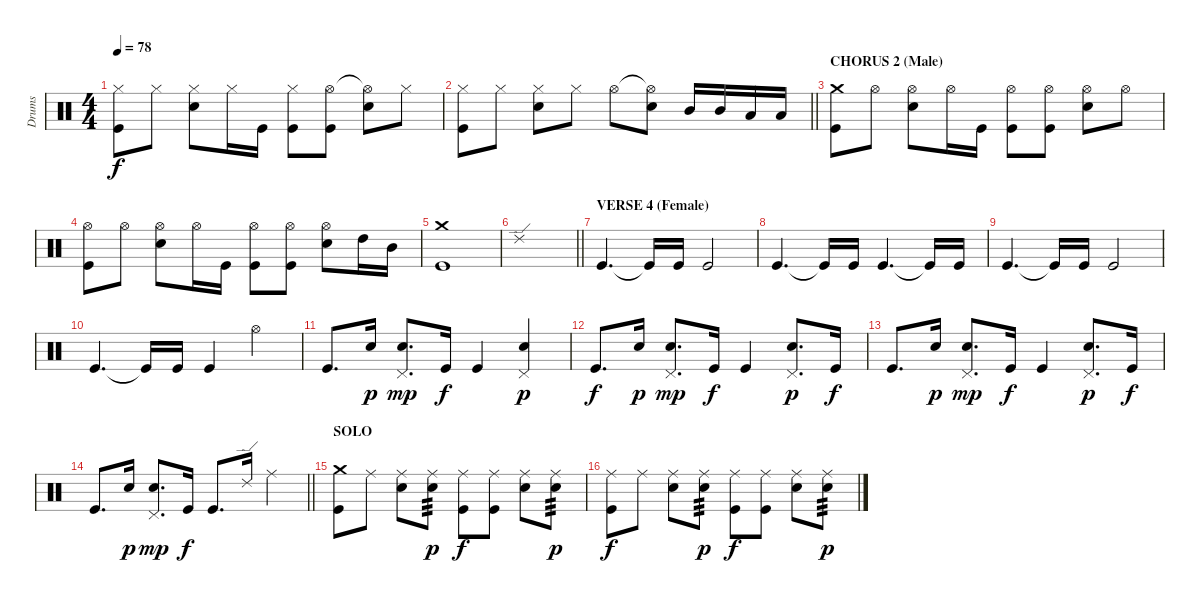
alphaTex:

\track ("Drums" "Drums") {instrument percussion}
\staff {score}
\articulation defaults
\ts (4 4)
\tempo 78
\clef neutral
\ks c
("Hi-Hat (closed)" "Kick (hit)").8{dy f} "Hi-Hat (closed)".8 ("Hi-Hat (closed)" "Snare (hit) 2").8 "Hi-Hat (closed)".16 "Kick (hit)".16 ("Hi-Hat (closed)" "Kick (hit)").8 ("Hi-Hat (open)" "Kick (hit)").8 ("Hi-Hat (open)"{t} "Snare (hit) 2").8 "Hi-Hat (closed)".8 |
\barLineRight lightlight
("Hi-Hat (closed)" "Kick (hit)").8 "Hi-Hat (closed)".8 ("Hi-Hat (closed)" "Snare (hit) 2").8 "Hi-Hat (closed)".8 "Hi-Hat (open)".8 ("Hi-Hat (open)"{t} "Snare (hit) 2").8 "Mid Tom (hit)".16 "Mid Tom (hit)".16 "Low Tom (hit)".16 "Low Tom (hit)".16 |
\section ("" "CHORUS 2 (Male)")
("Crash medium (hit)" "Kick (hit)").8 "Hi-Hat (open)".8 ("Hi-Hat (open)" "Snare (hit) 2").8 "Hi-Hat (open)".16 "Kick (hit)".16 ("Hi-Hat (open)" "Kick (hit)").8 ("Hi-Hat (open)" "Kick (hit)").8 ("Hi-Hat (open)" "Snare (hit) 2").8 "Hi-Hat (open)".8 |
("Hi-Hat (open)" "Kick (hit)").8 "Hi-Hat (open)".8 ("Hi-Hat (open)" "Snare (hit) 2").8 "Hi-Hat (open)".16 "Kick (hit)".16 ("Hi-Hat (open)" "Kick (hit)").8 ("Hi-Hat (open)" "Kick (hit)").8 ("Hi-Hat (open)" "Snare (hit) 2").8 "High Tom (hit)".16 "Mid Tom (hit)".16 |
("Kick (hit)" "Crash medium (hit)").1 |
\barLineRight lightlight "Ride (edge) 2".1
|
\section ("" "VERSE 4 (Female)")
"Kick (hit)".4{d} "Kick (hit)"{t}.16 "Kick (hit)".16 "Kick (hit)".2 |
"Kick (hit)".4{d} "Kick (hit)"{t}.16 "Kick (hit)".16 "Kick (hit)".4{d} "Kick (hit)"{t}.16 "Kick (hit)".16 |
"Kick (hit)".4{d} "Kick (hit)"{t}.16 "Kick (hit)".16 "Kick (hit)".2 |
"Kick (hit)".4{d} "Kick (hit)"{t}.16 "Kick (hit)".16 "Kick (hit)".4 "Hi-Hat (open)".4 |
"Kick (hit)".8{d} "Electric Snare (hit)".16{dy p} ("Pedal Hi-Hat (hit)" "Snare (hit) 2").8{d dy mp} "Kick (hit)".16{dy f} "Kick (hit)".4 ("Pedal Hi-Hat (hit)" "Snare (hit) 2").4{dy p} |
"Kick (hit)".8{d dy f} "Electric Snare (hit)".16{dy p} ("Pedal Hi-Hat (hit)" "Snare (hit) 2").8{d dy mp} "Kick (hit)".16{dy f} "Kick (hit)".4 ("Pedal Hi-Hat (hit)" "Snare (hit) 2").8{d dy p} "Kick (hit)".16{dy f} |
"Kick (hit)".8{d} "Electric Snare (hit)".16{dy p} ("Pedal Hi-Hat (hit)" "Snare (hit) 2").8{d dy mp} "Kick (hit)".16{dy f} "Kick (hit)".4 ("Pedal Hi-Hat (hit)" "Snare (hit) 2").8{d dy p} "Kick (hit)".16{dy f} |
\barLineRight lightlight "Kick (hit)".8{d} "Electric Snare (hit)".16{dy p}
("Pedal Hi-Hat (hit)" "Snare (hit) 2").8{d dy mp} "Kick (hit)".16{dy f} "Kick (hit)".8{d} "Ride (edge) 2".16 "Ride (middle)".4 |
\section ("" "SOLO")
("Crash medium (hit)" "Kick (hit)").8 "Ride (middle)".8 ("Ride (middle)" "Snare (hit) 2").8 ("Ride (middle)" "Snare (hit) 2").8{tp 3 dy p} ("Ride (middle)" "Kick (hit)").8{dy f} ("Ride (middle)" "Kick (hit)").8 ("Ride (middle)" "Snare (hit) 2").8 ("Ride (middle)" "Snare (hit) 2").8{tp 3 dy p} |
("Ride (middle)" "Kick (hit)").8{dy f} "Ride (middle)".8 ("Ride (middle)" "Snare (hit) 2").8 ("Ride (middle)" "Snare (hit) 2").8{tp 3 dy p} ("Ride (middle)" "Kick (hit)").8{dy f} ("Ride (middle)" "Kick (hit)").8 ("Ride (middle)" "Snare (hit) 2").8 ("Ride (middle)" "Snare (hit) 2").8{tp 3 dy p}
